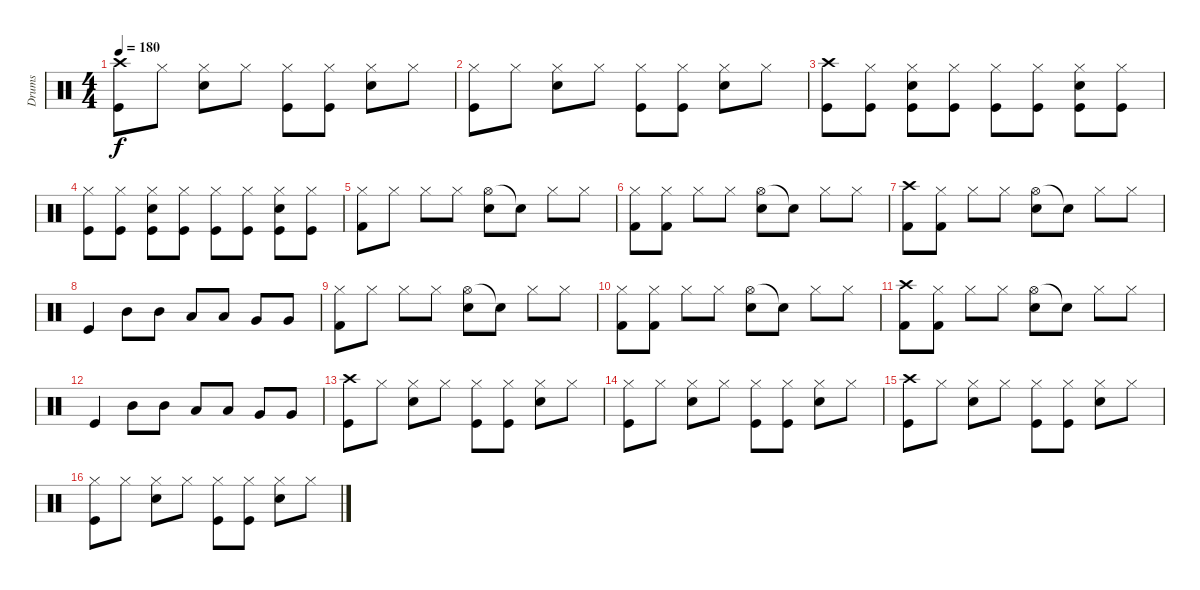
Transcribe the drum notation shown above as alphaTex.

\track ("Drums" "Drums") {instrument percussion}
\staff {score}
\articulation defaults
\ts (4 4)
\tempo 180
\clef neutral
\ks c
("Crash high (hit)" "Kick (hit)").8{dy f} "Hi-Hat (closed)".8 ("Hi-Hat (closed)" "Snare (hit) 2").8 "Hi-Hat (closed)".8 ("Hi-Hat (closed)" "Kick (hit)").8 ("Hi-Hat (closed)" "Kick (hit)").8 ("Hi-Hat (closed)" "Snare (hit) 2").8 "Hi-Hat (closed)".8 |
("Hi-Hat (closed)" "Kick (hit)").8 "Hi-Hat (closed)".8 ("Hi-Hat (closed)" "Snare (hit) 2").8 "Hi-Hat (closed)".8 ("Hi-Hat (closed)" "Kick (hit)").8 ("Hi-Hat (closed)" "Kick (hit)").8 ("Hi-Hat (closed)" "Snare (hit) 2").8 "Hi-Hat (closed)".8 |
("Crash high (hit)" "Kick (hit)").8 ("Hi-Hat (closed)" "Kick (hit)").8 ("Hi-Hat (closed)" "Snare (hit) 2" "Kick (hit)").8 ("Hi-Hat (closed)" "Kick (hit)").8 ("Hi-Hat (closed)" "Kick (hit)").8 ("Hi-Hat (closed)" "Kick (hit)").8 ("Hi-Hat (closed)" "Snare (hit) 2" "Kick (hit)").8 ("Hi-Hat (closed)" "Kick (hit)").8 |
("Hi-Hat (closed)" "Kick (hit)").8 ("Hi-Hat (closed)" "Kick (hit)").8 ("Hi-Hat (closed)" "Snare (hit) 2" "Kick (hit)").8 ("Hi-Hat (closed)" "Kick (hit)").8 ("Hi-Hat (closed)" "Kick (hit)").8 ("Hi-Hat (closed)" "Kick (hit)").8 ("Hi-Hat (closed)" "Snare (hit) 2" "Kick (hit)").8 ("Hi-Hat (closed)" "Kick (hit)").8 |
("Hi-Hat (closed)" "Kick (hit) 2").8 "Hi-Hat (closed)".8 "Hi-Hat (closed)".8 "Hi-Hat (closed)".8 ("Hi-Hat (open)" "Snare (hit) 2").8 "Snare (hit)"{t}.8 "Hi-Hat (closed)".8 "Hi-Hat (closed)".8 |
("Hi-Hat (closed)" "Kick (hit) 2").8 ("Hi-Hat (closed)" "Kick (hit) 2").8 "Hi-Hat (closed)".8 "Hi-Hat (closed)".8 ("Hi-Hat (open)" "Snare (hit) 2").8 "Snare (hit)"{t}.8 "Hi-Hat (closed)".8 "Hi-Hat (closed)".8 |
("Crash high (hit)" "Kick (hit) 2").8 ("Hi-Hat (closed)" "Kick (hit) 2").8 "Hi-Hat (closed)".8 "Hi-Hat (closed)".8 ("Hi-Hat (open)" "Snare (hit) 2").8 "Snare (hit)"{t}.8 "Hi-Hat (closed)".8 "Hi-Hat (closed)".8 |
"Kick (hit)".4 "Mid Tom (hit)".8 "Mid Tom (hit)".8 "Low Tom (hit)".8 "Low Tom (hit)".8 "Very Low Tom (hit)".8 "Very Low Tom (hit)".8 |
("Hi-Hat (closed)" "Kick (hit) 2").8 "Hi-Hat (closed)".8 "Hi-Hat (closed)".8 "Hi-Hat (closed)".8 ("Hi-Hat (open)" "Snare (hit) 2").8 "Snare (hit)"{t}.8 "Hi-Hat (closed)".8 "Hi-Hat (closed)".8 |
("Hi-Hat (closed)" "Kick (hit) 2").8 ("Hi-Hat (closed)" "Kick (hit) 2").8 "Hi-Hat (closed)".8 "Hi-Hat (closed)".8 ("Hi-Hat (open)" "Snare (hit) 2").8 "Snare (hit)"{t}.8 "Hi-Hat (closed)".8 "Hi-Hat (closed)".8 |
("Crash high (hit)" "Kick (hit) 2").8 ("Hi-Hat (closed)" "Kick (hit) 2").8 "Hi-Hat (closed)".8 "Hi-Hat (closed)".8 ("Hi-Hat (open)" "Snare (hit) 2").8 "Snare (hit)"{t}.8 "Hi-Hat (closed)".8 "Hi-Hat (closed)".8 |
"Kick (hit)".4 "Mid Tom (hit)".8 "Mid Tom (hit)".8 "Low Tom (hit)".8 "Low Tom (hit)".8 "Very Low Tom (hit)".8 "Very Low Tom (hit)".8 |
("Crash high (hit)" "Kick (hit)").8 "Hi-Hat (closed)".8 ("Hi-Hat (closed)" "Snare (hit) 2").8 "Hi-Hat (closed)".8 ("Hi-Hat (closed)" "Kick (hit)").8 ("Hi-Hat (closed)" "Kick (hit)").8 ("Hi-Hat (closed)" "Snare (hit) 2").8 "Hi-Hat (closed)".8 |
("Hi-Hat (closed)" "Kick (hit)").8 "Hi-Hat (closed)".8 ("Hi-Hat (closed)" "Snare (hit) 2").8 "Hi-Hat (closed)".8 ("Hi-Hat (closed)" "Kick (hit)").8 ("Hi-Hat (closed)" "Kick (hit)").8 ("Hi-Hat (closed)" "Snare (hit) 2").8 "Hi-Hat (closed)".8 |
("Crash high (hit)" "Kick (hit)").8 "Hi-Hat (closed)".8 ("Hi-Hat (closed)" "Snare (hit) 2").8 "Hi-Hat (closed)".8 ("Hi-Hat (closed)" "Kick (hit)").8 ("Hi-Hat (closed)" "Kick (hit)").8 ("Hi-Hat (closed)" "Snare (hit) 2").8 "Hi-Hat (closed)".8 |
("Hi-Hat (closed)" "Kick (hit)").8 "Hi-Hat (closed)".8 ("Hi-Hat (closed)" "Snare (hit) 2").8 "Hi-Hat (closed)".8 ("Hi-Hat (closed)" "Kick (hit)").8 ("Hi-Hat (closed)" "Kick (hit)").8 ("Hi-Hat (closed)" "Snare (hit) 2").8 "Hi-Hat (closed)".8
